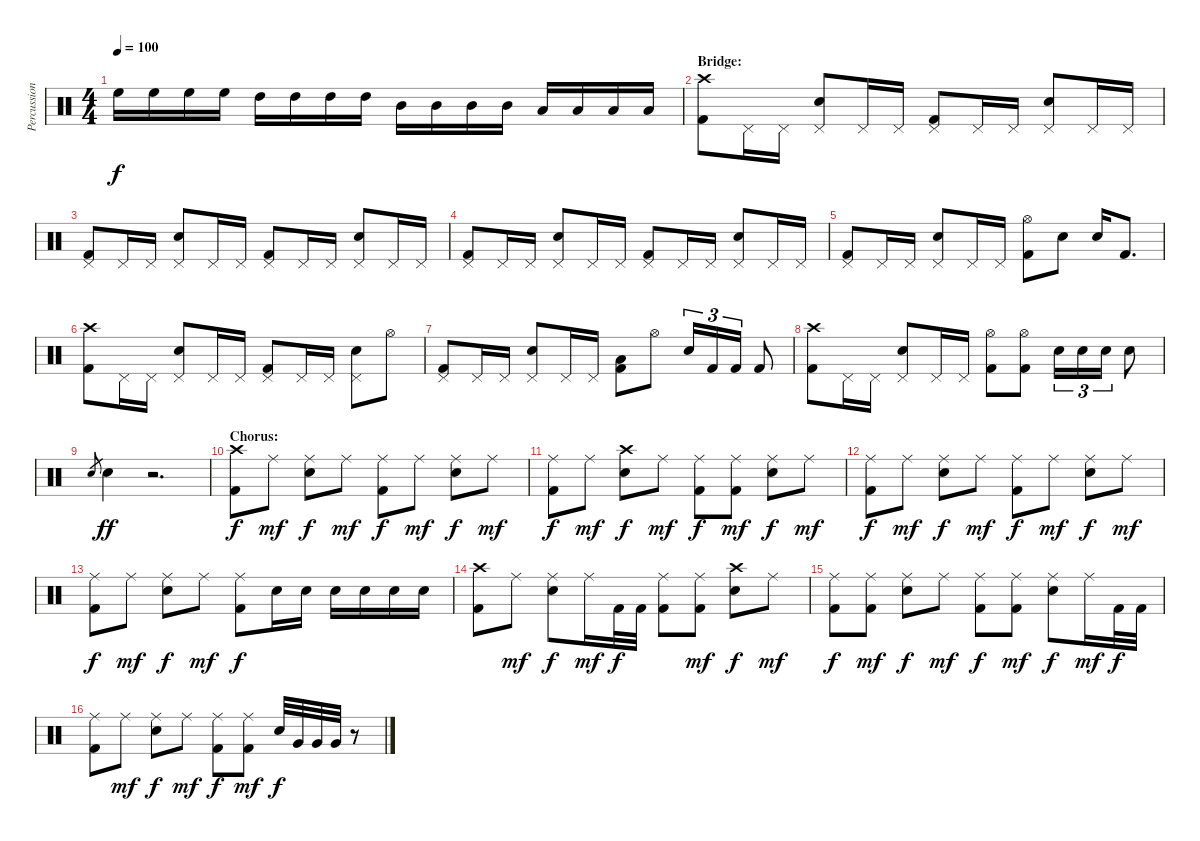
\track ("Percussion" "Percussion") {instrument percussion}
\staff {score}
\articulation defaults
\ts (4 4)
\tempo 100
\clef neutral
\ks c "High Floor Tom (hit)".16{dy f} "High Floor Tom (hit)".16 "High Floor Tom (hit)".16 "High Floor Tom (hit)".16 "High Tom (hit)".16 "High Tom (hit)".16 "High Tom (hit)".16 "High Tom (hit)".16 "Mid Tom (hit)".16 "Mid Tom (hit)".16 "Mid Tom (hit)".16 "Mid Tom (hit)".16 "Low Tom (hit)".16 "Low Tom (hit)".16 "Low Tom (hit)".16 "Low Tom (hit)".16
|
\section ("" "Bridge:")
("Crash high (hit)" "Kick (hit) 2").8 "Pedal Hi-Hat (hit)".16 "Pedal Hi-Hat (hit)".16 ("Pedal Hi-Hat (hit)" "Electric Snare (hit)").8 "Pedal Hi-Hat (hit)".16 "Pedal Hi-Hat (hit)".16 ("Pedal Hi-Hat (hit)" "Kick (hit) 2").8 "Pedal Hi-Hat (hit)".16 "Pedal Hi-Hat (hit)".16 ("Pedal Hi-Hat (hit)" "Electric Snare (hit)").8 "Pedal Hi-Hat (hit)".16 "Pedal Hi-Hat (hit)".16 |
("Pedal Hi-Hat (hit)" "Kick (hit) 2").8 "Pedal Hi-Hat (hit)".16 "Pedal Hi-Hat (hit)".16 ("Pedal Hi-Hat (hit)" "Electric Snare (hit)").8 "Pedal Hi-Hat (hit)".16 "Pedal Hi-Hat (hit)".16 ("Pedal Hi-Hat (hit)" "Kick (hit) 2").8 "Pedal Hi-Hat (hit)".16 "Pedal Hi-Hat (hit)".16 ("Pedal Hi-Hat (hit)" "Electric Snare (hit)").8 "Pedal Hi-Hat (hit)".16 "Pedal Hi-Hat (hit)".16 |
("Pedal Hi-Hat (hit)" "Kick (hit) 2").8 "Pedal Hi-Hat (hit)".16 "Pedal Hi-Hat (hit)".16 ("Pedal Hi-Hat (hit)" "Electric Snare (hit)").8 "Pedal Hi-Hat (hit)".16 "Pedal Hi-Hat (hit)".16 ("Pedal Hi-Hat (hit)" "Kick (hit) 2").8 "Pedal Hi-Hat (hit)".16 "Pedal Hi-Hat (hit)".16 ("Pedal Hi-Hat (hit)" "Electric Snare (hit)").8 "Pedal Hi-Hat (hit)".16 "Pedal Hi-Hat (hit)".16 |
("Pedal Hi-Hat (hit)" "Kick (hit) 2").8 "Pedal Hi-Hat (hit)".16 "Pedal Hi-Hat (hit)".16 ("Pedal Hi-Hat (hit)" "Electric Snare (hit)").8 "Pedal Hi-Hat (hit)".16 "Pedal Hi-Hat (hit)".16 ("Hi-Hat (open)" "Kick (hit) 2").8 "Electric Snare (hit)".8 "Electric Snare (hit)".16 "Kick (hit) 2".8{d} |
("Crash high (hit)" "Kick (hit) 2").8 "Pedal Hi-Hat (hit)".16 "Pedal Hi-Hat (hit)".16 ("Pedal Hi-Hat (hit)" "Electric Snare (hit)").8 "Pedal Hi-Hat (hit)".16 "Pedal Hi-Hat (hit)".16 ("Pedal Hi-Hat (hit)" "Kick (hit) 2").8 "Pedal Hi-Hat (hit)".16 "Pedal Hi-Hat (hit)".16 ("Pedal Hi-Hat (hit)" "Electric Snare (hit)").8 "Hi-Hat (open)".8 |
("Pedal Hi-Hat (hit)" "Kick (hit) 2").8 "Pedal Hi-Hat (hit)".16 "Pedal Hi-Hat (hit)".16 ("Pedal Hi-Hat (hit)" "Electric Snare (hit)").8 "Pedal Hi-Hat (hit)".16 "Pedal Hi-Hat (hit)".16 ("Low Floor Tom (hit)" "Kick (hit) 2").8 "Hi-Hat (open)".8 "Electric Snare (hit)".16{tu (3 2)} "Kick (hit) 2".16{tu (3 2)} "Kick (hit) 2".16{tu (3 2)} "Kick (hit) 2".8 |
("Crash high (hit)" "Kick (hit) 2").8 "Pedal Hi-Hat (hit)".16 "Pedal Hi-Hat (hit)".16 ("Pedal Hi-Hat (hit)" "Electric Snare (hit)").8 "Pedal Hi-Hat (hit)".16 "Pedal Hi-Hat (hit)".16 ("Hi-Hat (open)" "Kick (hit) 2").8 ("Hi-Hat (open)" "Kick (hit) 2").8 "Electric Snare (hit)".16{tu (3 2)} "Electric Snare (hit)".16{tu (3 2)} "Electric Snare (hit)".16{tu (3 2)} "Electric Snare (hit)".8 |
"Electric Snare (hit)".8{gr} "Electric Snare (hit)".4{dy ff} r.2{d} |
\section ("" "Chorus:")
("Crash high (hit)" "Kick (hit) 2").8{dy f} "Ride (middle)".8{dy mf} ("Ride (middle)" "Electric Snare (hit)").8{dy f} "Ride (middle)".8{dy mf} ("Ride (middle)" "Kick (hit) 2").8{dy f} "Ride (middle)".8{dy mf} ("Ride (middle)" "Electric Snare (hit)").8{dy f} "Ride (middle)".8{dy mf} |
("Ride (middle)" "Kick (hit) 2").8{dy f} "Ride (middle)".8{dy mf} ("Crash high (hit)" "Electric Snare (hit)").8{dy f} "Ride (middle)".8{dy mf} ("Ride (middle)" "Kick (hit) 2").8{dy f} ("Ride (middle)" "Kick (hit) 2").8{dy mf} ("Ride (middle)" "Electric Snare (hit)").8{dy f} "Ride (middle)".8{dy mf} |
("Ride (middle)" "Kick (hit) 2").8{dy f} "Ride (middle)".8{dy mf} ("Ride (middle)" "Electric Snare (hit)").8{dy f} "Ride (middle)".8{dy mf} ("Ride (middle)" "Kick (hit) 2").8{dy f} "Ride (middle)".8{dy mf} ("Ride (middle)" "Electric Snare (hit)").8{dy f} "Ride (middle)".8{dy mf} |
("Ride (middle)" "Kick (hit) 2").8{dy f} "Ride (middle)".8{dy mf} ("Ride (middle)" "Electric Snare (hit)").8{dy f} "Ride (middle)".8{dy mf} ("Ride (middle)" "Kick (hit) 2").8{dy f} "Electric Snare (hit)".16 "Electric Snare (hit)".16 "Electric Snare (hit)".16 "Electric Snare (hit)".16 "Electric Snare (hit)".16 "Electric Snare (hit)".16 |
("Crash high (hit)" "Kick (hit) 2").8 "Ride (middle)".8{dy mf} ("Ride (middle)" "Electric Snare (hit)").8{dy f} "Ride (middle)".16{dy mf} "Kick (hit) 2".32{dy f} "Kick (hit) 2".32 ("Ride (middle)" "Kick (hit) 2").8 ("Ride (middle)" "Kick (hit) 2").8{dy mf} ("Crash high (hit)" "Electric Snare (hit)").8{dy f} "Ride (middle)".8{dy mf} |
("Ride (middle)" "Kick (hit) 2").8{dy f} ("Ride (middle)" "Kick (hit) 2").8{dy mf} ("Ride (middle)" "Electric Snare (hit)").8{dy f} "Ride (middle)".8{dy mf} ("Ride (middle)" "Kick (hit) 2").8{dy f} ("Ride (middle)" "Kick (hit) 2").8{dy mf} ("Ride (middle)" "Electric Snare (hit)").8{dy f} "Ride (middle)".16{dy mf} "Kick (hit) 2".32{dy f} "Kick (hit) 2".32 |
("Ride (middle)" "Kick (hit) 2").8 "Ride (middle)".8{dy mf} ("Ride (middle)" "Electric Snare (hit)").8{dy f} "Ride (middle)".8{dy mf} ("Ride (middle)" "Kick (hit) 2").8{dy f} ("Ride (middle)" "Kick (hit) 2").8{dy mf} "Electric Snare (hit)".32{dy f} "Very Low Tom (hit)".32 "Very Low Tom (hit)".32 "Very Low Tom (hit)".32 r.8
